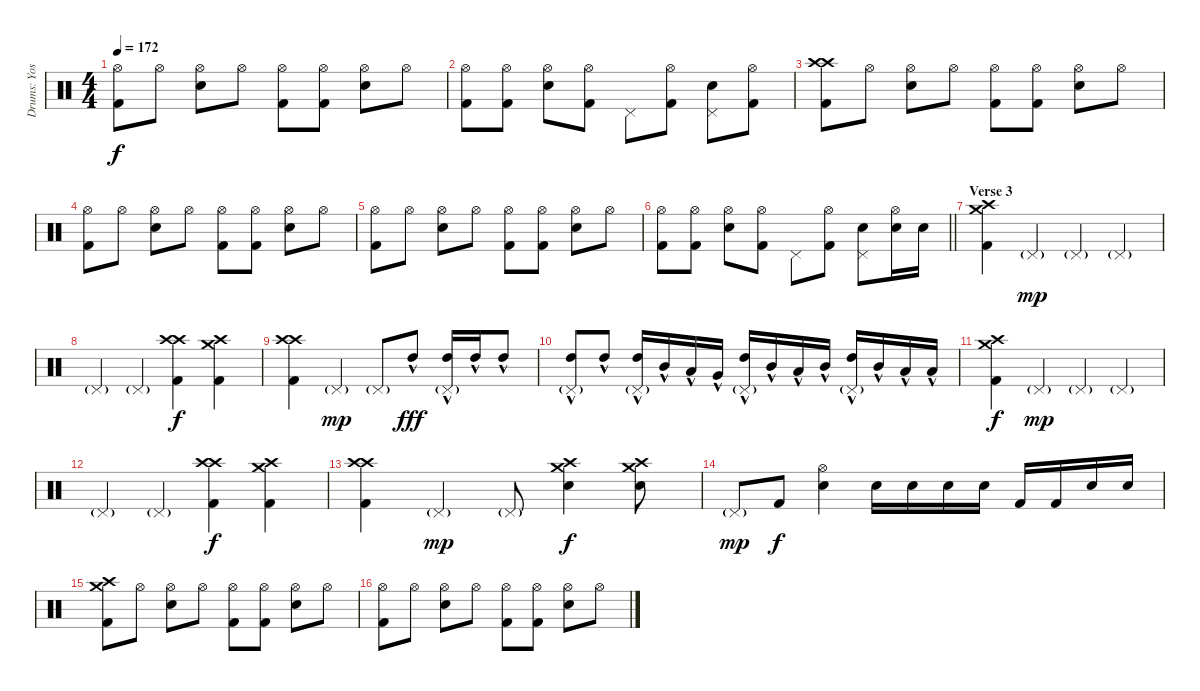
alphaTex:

\track ("Drums: Yoshiki" "Drums: Yos") {instrument percussion}
\staff {score}
\articulation defaults
\ts (4 4)
\tempo 172
\clef neutral
\ks c
("Hi-Hat (open)" "Kick (hit) 2").8{dy f} "Hi-Hat (open)".8 ("Hi-Hat (open)" "Snare (hit) 2").8 "Hi-Hat (open)".8 ("Hi-Hat (open)" "Kick (hit) 2").8 ("Hi-Hat (open)" "Kick (hit) 2").8 ("Hi-Hat (open)" "Snare (hit) 2").8 "Hi-Hat (open)".8 |
("Hi-Hat (open)" "Kick (hit) 2").8 ("Hi-Hat (open)" "Kick (hit) 2").8 ("Hi-Hat (open)" "Snare (hit) 2").8 ("Hi-Hat (open)" "Kick (hit) 2").8 "Pedal Hi-Hat (hit)".8 ("Hi-Hat (open)" "Kick (hit) 2").8 ("Pedal Hi-Hat (hit)" "Snare (hit) 2").8 ("Hi-Hat (open)" "Kick (hit) 2").8 |
("Crash high (hit)" "Crash high (hit)" "Kick (hit) 2").8 "Hi-Hat (open)".8 ("Hi-Hat (open)" "Snare (hit) 2").8 "Hi-Hat (open)".8 ("Hi-Hat (open)" "Kick (hit) 2").8 ("Hi-Hat (open)" "Kick (hit) 2").8 ("Hi-Hat (open)" "Snare (hit) 2").8 "Hi-Hat (open)".8 |
("Hi-Hat (open)" "Kick (hit) 2").8 "Hi-Hat (open)".8 ("Hi-Hat (open)" "Snare (hit) 2").8 "Hi-Hat (open)".8 ("Hi-Hat (open)" "Kick (hit) 2").8 ("Hi-Hat (open)" "Kick (hit) 2").8 ("Hi-Hat (open)" "Snare (hit) 2").8 "Hi-Hat (open)".8 |
("Hi-Hat (open)" "Kick (hit) 2").8 "Hi-Hat (open)".8 ("Hi-Hat (open)" "Snare (hit) 2").8 "Hi-Hat (open)".8 ("Hi-Hat (open)" "Kick (hit) 2").8 ("Hi-Hat (open)" "Kick (hit) 2").8 ("Hi-Hat (open)" "Snare (hit) 2").8 "Hi-Hat (open)".8 |
\barLineRight lightlight
("Hi-Hat (open)" "Kick (hit) 2").8 ("Hi-Hat (open)" "Kick (hit) 2").8 ("Hi-Hat (open)" "Snare (hit) 2").8 ("Hi-Hat (open)" "Kick (hit) 2").8 "Pedal Hi-Hat (hit)".8 ("Hi-Hat (open)" "Kick (hit) 2").8 ("Pedal Hi-Hat (hit)" "Snare (hit) 2").8 ("Hi-Hat (open)" "Snare (hit) 2").16 "Snare (hit) 2".16 |
\section ("" "Verse 3")
("Crash high (hit)" "Crash medium (hit)" "Kick (hit) 2").4 "Pedal Hi-Hat (hit)"{g}.4{dy mp} "Pedal Hi-Hat (hit)"{g}.4 "Pedal Hi-Hat (hit)"{g}.4 |
"Pedal Hi-Hat (hit)"{g}.4 "Pedal Hi-Hat (hit)"{g}.4 ("Crash high (hit)" "Crash high (hit)" "Kick (hit) 2").4{dy f} ("Crash high (hit)" "Crash medium (hit)" "Kick (hit) 2").4 |
("Crash high (hit)" "Crash high (hit)" "Kick (hit) 2").4 "Pedal Hi-Hat (hit)"{g}.4{dy mp} "Pedal Hi-Hat (hit)"{g}.8 "High Tom (hit)"{hac}.8{dy fff} ("Pedal Hi-Hat (hit)"{g} "High Tom (hit)"{hac}).16 "High Tom (hit)"{hac}.16 "High Tom (hit)"{hac}.8 |
("Pedal Hi-Hat (hit)"{g} "High Tom (hit)"{hac}).8 "High Tom (hit)"{hac}.8 ("Pedal Hi-Hat (hit)"{g} "High Tom (hit)"{hac}).16 "Mid Tom (hit)"{hac}.16 "Low Tom (hit)"{hac}.16 "Very Low Tom (hit)"{hac}.16 ("Pedal Hi-Hat (hit)"{g} "High Tom (hit)"{hac}).16 "Mid Tom (hit)"{hac}.16 "Low Tom (hit)"{hac}.16 "Mid Tom (hit)"{hac}.16 ("Pedal Hi-Hat (hit)"{g} "High Tom (hit)"{hac}).16 "Mid Tom (hit)"{hac}.16 "Low Tom (hit)"{hac}.16 "Low Floor Tom (hit)"{hac}.16 |
("Crash high (hit)" "Crash medium (hit)" "Kick (hit) 2").4{dy f} "Pedal Hi-Hat (hit)"{g}.4{dy mp} "Pedal Hi-Hat (hit)"{g}.4 "Pedal Hi-Hat (hit)"{g}.4 |
"Pedal Hi-Hat (hit)"{g}.4 "Pedal Hi-Hat (hit)"{g}.4 ("Crash high (hit)" "Crash high (hit)" "Kick (hit) 2").4{dy f} ("Crash high (hit)" "Crash medium (hit)" "Kick (hit) 2").4 |
("Crash high (hit)" "Crash high (hit)" "Kick (hit) 2").4 "Pedal Hi-Hat (hit)"{g}.4{dy mp} "Pedal Hi-Hat (hit)"{g}.8 ("Crash high (hit)" "Crash medium (hit)" "Snare (hit) 2").4{dy f} ("Crash high (hit)" "Crash medium (hit)" "Snare (hit) 2").8 |
"Pedal Hi-Hat (hit)"{g}.8{dy mp} "Kick (hit) 2".8{dy f} ("Hi-Hat (open)" "Snare (hit) 2").4 "Snare (hit) 2".16 "Snare (hit) 2".16 "Snare (hit) 2".16 "Snare (hit) 2".16 "Kick (hit) 2".16 "Kick (hit) 2".16 "Snare (hit) 2".16 "Snare (hit) 2".16 |
("Crash high (hit)" "Crash medium (hit)" "Kick (hit) 2").8 "Hi-Hat (open)".8 ("Hi-Hat (open)" "Snare (hit) 2").8 "Hi-Hat (open)".8 ("Hi-Hat (open)" "Kick (hit) 2").8 ("Hi-Hat (open)" "Kick (hit) 2").8 ("Hi-Hat (open)" "Snare (hit) 2").8 "Hi-Hat (open)".8 |
("Hi-Hat (open)" "Kick (hit) 2").8 "Hi-Hat (open)".8 ("Hi-Hat (open)" "Snare (hit) 2").8 "Hi-Hat (open)".8 ("Hi-Hat (open)" "Kick (hit) 2").8 ("Hi-Hat (open)" "Kick (hit) 2").8 ("Hi-Hat (open)" "Snare (hit) 2").8 "Hi-Hat (open)".8
